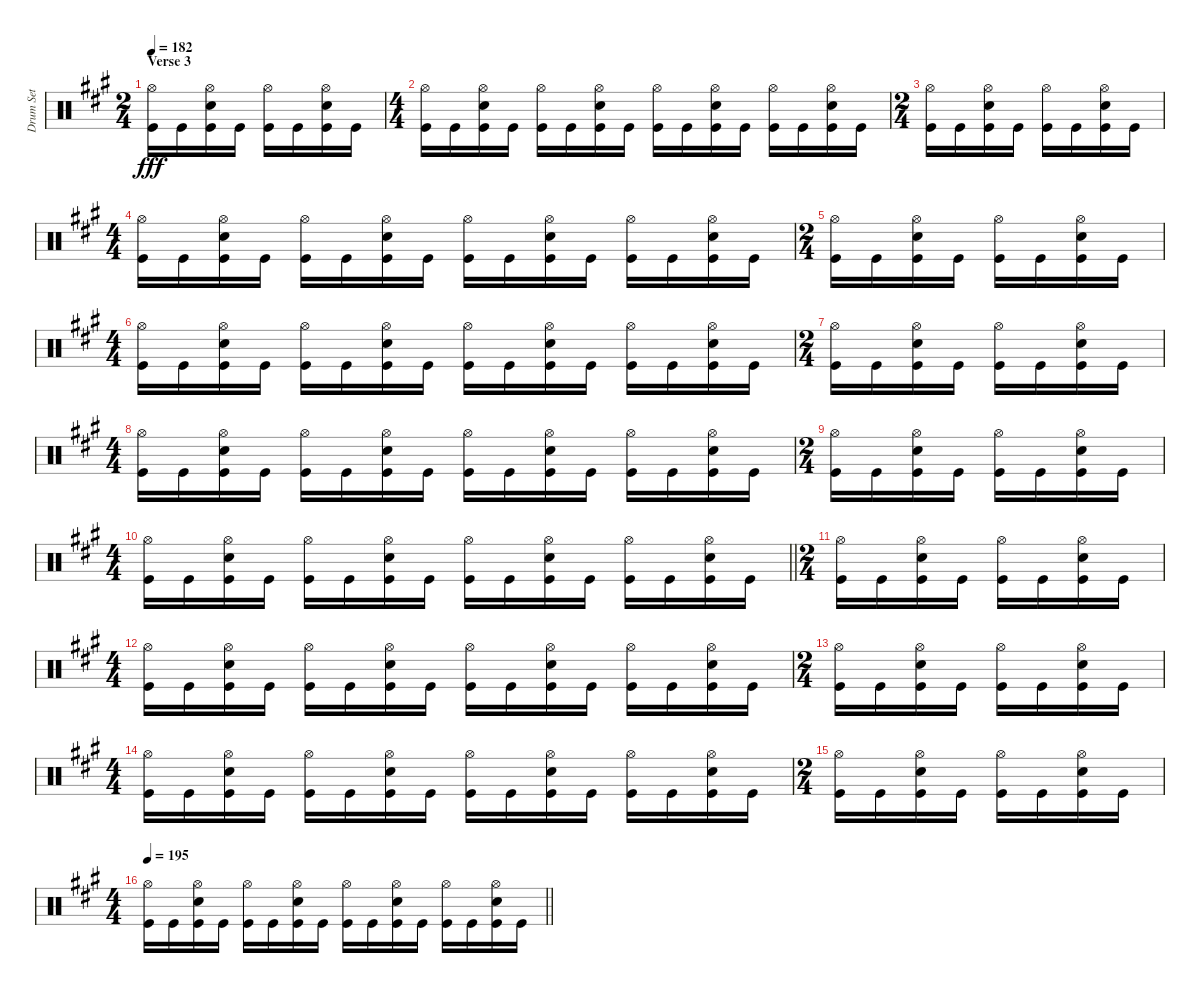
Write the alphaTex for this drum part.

\track ("Drum Set" "Drum Set") {instrument percussion}
\staff {score}
\articulation defaults
\ts (2 4)
\section ("" "Verse 3")
\tempo 182
\clef neutral
\ks a
("Hi-Hat (open)" "Kick (hit)").16{dy fff} "Kick (hit)".16 ("Electric Snare (hit)" "Hi-Hat (open)" "Kick (hit)").16 "Kick (hit)".16 ("Hi-Hat (open)" "Kick (hit)").16 "Kick (hit)".16 ("Electric Snare (hit)" "Hi-Hat (open)" "Kick (hit)").16 "Kick (hit)".16 |
\ts (4 4)
("Hi-Hat (open)" "Kick (hit)").16 "Kick (hit)".16 ("Electric Snare (hit)" "Hi-Hat (open)" "Kick (hit)").16 "Kick (hit)".16 ("Hi-Hat (open)" "Kick (hit)").16 "Kick (hit)".16 ("Electric Snare (hit)" "Hi-Hat (open)" "Kick (hit)").16 "Kick (hit)".16 ("Hi-Hat (open)" "Kick (hit)").16 "Kick (hit)".16 ("Electric Snare (hit)" "Hi-Hat (open)" "Kick (hit)").16 "Kick (hit)".16 ("Hi-Hat (open)" "Kick (hit)").16 "Kick (hit)".16 ("Electric Snare (hit)" "Hi-Hat (open)" "Kick (hit)").16 "Kick (hit)".16 |
\ts (2 4)
("Hi-Hat (open)" "Kick (hit)").16 "Kick (hit)".16 ("Electric Snare (hit)" "Hi-Hat (open)" "Kick (hit)").16 "Kick (hit)".16 ("Hi-Hat (open)" "Kick (hit)").16 "Kick (hit)".16 ("Electric Snare (hit)" "Hi-Hat (open)" "Kick (hit)").16 "Kick (hit)".16 |
\ts (4 4)
("Hi-Hat (open)" "Kick (hit)").16 "Kick (hit)".16 ("Electric Snare (hit)" "Hi-Hat (open)" "Kick (hit)").16 "Kick (hit)".16 ("Hi-Hat (open)" "Kick (hit)").16 "Kick (hit)".16 ("Electric Snare (hit)" "Hi-Hat (open)" "Kick (hit)").16 "Kick (hit)".16 ("Hi-Hat (open)" "Kick (hit)").16 "Kick (hit)".16 ("Electric Snare (hit)" "Hi-Hat (open)" "Kick (hit)").16 "Kick (hit)".16 ("Hi-Hat (open)" "Kick (hit)").16 "Kick (hit)".16 ("Electric Snare (hit)" "Hi-Hat (open)" "Kick (hit)").16 "Kick (hit)".16 |
\ts (2 4)
("Hi-Hat (open)" "Kick (hit)").16 "Kick (hit)".16 ("Electric Snare (hit)" "Hi-Hat (open)" "Kick (hit)").16 "Kick (hit)".16 ("Hi-Hat (open)" "Kick (hit)").16 "Kick (hit)".16 ("Electric Snare (hit)" "Hi-Hat (open)" "Kick (hit)").16 "Kick (hit)".16 |
\ts (4 4)
("Hi-Hat (open)" "Kick (hit)").16 "Kick (hit)".16 ("Electric Snare (hit)" "Hi-Hat (open)" "Kick (hit)").16 "Kick (hit)".16 ("Hi-Hat (open)" "Kick (hit)").16 "Kick (hit)".16 ("Electric Snare (hit)" "Hi-Hat (open)" "Kick (hit)").16 "Kick (hit)".16 ("Hi-Hat (open)" "Kick (hit)").16 "Kick (hit)".16 ("Electric Snare (hit)" "Hi-Hat (open)" "Kick (hit)").16 "Kick (hit)".16 ("Hi-Hat (open)" "Kick (hit)").16 "Kick (hit)".16 ("Electric Snare (hit)" "Hi-Hat (open)" "Kick (hit)").16 "Kick (hit)".16 |
\ts (2 4)
("Hi-Hat (open)" "Kick (hit)").16 "Kick (hit)".16 ("Electric Snare (hit)" "Hi-Hat (open)" "Kick (hit)").16 "Kick (hit)".16 ("Hi-Hat (open)" "Kick (hit)").16 "Kick (hit)".16 ("Electric Snare (hit)" "Hi-Hat (open)" "Kick (hit)").16 "Kick (hit)".16 |
\ts (4 4)
("Hi-Hat (open)" "Kick (hit)").16 "Kick (hit)".16 ("Electric Snare (hit)" "Hi-Hat (open)" "Kick (hit)").16 "Kick (hit)".16 ("Hi-Hat (open)" "Kick (hit)").16 "Kick (hit)".16 ("Electric Snare (hit)" "Hi-Hat (open)" "Kick (hit)").16 "Kick (hit)".16 ("Hi-Hat (open)" "Kick (hit)").16 "Kick (hit)".16 ("Electric Snare (hit)" "Hi-Hat (open)" "Kick (hit)").16 "Kick (hit)".16 ("Hi-Hat (open)" "Kick (hit)").16 "Kick (hit)".16 ("Electric Snare (hit)" "Hi-Hat (open)" "Kick (hit)").16 "Kick (hit)".16 |
\ts (2 4)
("Hi-Hat (open)" "Kick (hit)").16 "Kick (hit)".16 ("Electric Snare (hit)" "Hi-Hat (open)" "Kick (hit)").16 "Kick (hit)".16 ("Hi-Hat (open)" "Kick (hit)").16 "Kick (hit)".16 ("Electric Snare (hit)" "Hi-Hat (open)" "Kick (hit)").16 "Kick (hit)".16 |
\ts (4 4)
\barLineRight lightlight
("Hi-Hat (open)" "Kick (hit)").16 "Kick (hit)".16 ("Electric Snare (hit)" "Hi-Hat (open)" "Kick (hit)").16 "Kick (hit)".16 ("Hi-Hat (open)" "Kick (hit)").16 "Kick (hit)".16 ("Electric Snare (hit)" "Hi-Hat (open)" "Kick (hit)").16 "Kick (hit)".16 ("Hi-Hat (open)" "Kick (hit)").16 "Kick (hit)".16 ("Electric Snare (hit)" "Hi-Hat (open)" "Kick (hit)").16 "Kick (hit)".16 ("Hi-Hat (open)" "Kick (hit)").16 "Kick (hit)".16 ("Electric Snare (hit)" "Hi-Hat (open)" "Kick (hit)").16 "Kick (hit)".16 |
\ts (2 4)
("Hi-Hat (open)" "Kick (hit)").16 "Kick (hit)".16 ("Electric Snare (hit)" "Hi-Hat (open)" "Kick (hit)").16 "Kick (hit)".16 ("Hi-Hat (open)" "Kick (hit)").16 "Kick (hit)".16 ("Electric Snare (hit)" "Hi-Hat (open)" "Kick (hit)").16 "Kick (hit)".16 |
\ts (4 4)
("Hi-Hat (open)" "Kick (hit)").16 "Kick (hit)".16 ("Electric Snare (hit)" "Hi-Hat (open)" "Kick (hit)").16 "Kick (hit)".16 ("Hi-Hat (open)" "Kick (hit)").16 "Kick (hit)".16 ("Electric Snare (hit)" "Hi-Hat (open)" "Kick (hit)").16 "Kick (hit)".16 ("Hi-Hat (open)" "Kick (hit)").16 "Kick (hit)".16 ("Electric Snare (hit)" "Hi-Hat (open)" "Kick (hit)").16 "Kick (hit)".16 ("Hi-Hat (open)" "Kick (hit)").16 "Kick (hit)".16 ("Electric Snare (hit)" "Hi-Hat (open)" "Kick (hit)").16 "Kick (hit)".16 |
\ts (2 4)
("Hi-Hat (open)" "Kick (hit)").16 "Kick (hit)".16 ("Electric Snare (hit)" "Hi-Hat (open)" "Kick (hit)").16 "Kick (hit)".16 ("Hi-Hat (open)" "Kick (hit)").16 "Kick (hit)".16 ("Electric Snare (hit)" "Hi-Hat (open)" "Kick (hit)").16 "Kick (hit)".16 |
\ts (4 4)
("Hi-Hat (open)" "Kick (hit)").16 "Kick (hit)".16 ("Electric Snare (hit)" "Hi-Hat (open)" "Kick (hit)").16 "Kick (hit)".16 ("Hi-Hat (open)" "Kick (hit)").16 "Kick (hit)".16 ("Electric Snare (hit)" "Hi-Hat (open)" "Kick (hit)").16 "Kick (hit)".16 ("Hi-Hat (open)" "Kick (hit)").16 "Kick (hit)".16 ("Electric Snare (hit)" "Hi-Hat (open)" "Kick (hit)").16 "Kick (hit)".16 ("Hi-Hat (open)" "Kick (hit)").16 "Kick (hit)".16 ("Electric Snare (hit)" "Hi-Hat (open)" "Kick (hit)").16 "Kick (hit)".16 |
\ts (2 4)
("Hi-Hat (open)" "Kick (hit)").16 "Kick (hit)".16 ("Electric Snare (hit)" "Hi-Hat (open)" "Kick (hit)").16 "Kick (hit)".16 ("Hi-Hat (open)" "Kick (hit)").16 "Kick (hit)".16 ("Electric Snare (hit)" "Hi-Hat (open)" "Kick (hit)").16 "Kick (hit)".16 |
\ts (4 4)
\tempo 195
\barLineRight lightlight
("Hi-Hat (open)" "Kick (hit)").16 "Kick (hit)".16 ("Electric Snare (hit)" "Hi-Hat (open)" "Kick (hit)").16 "Kick (hit)".16 ("Hi-Hat (open)" "Kick (hit)").16 "Kick (hit)".16 ("Electric Snare (hit)" "Hi-Hat (open)" "Kick (hit)").16 "Kick (hit)".16 ("Hi-Hat (open)" "Kick (hit)").16 "Kick (hit)".16 ("Electric Snare (hit)" "Hi-Hat (open)" "Kick (hit)").16 "Kick (hit)".16 ("Hi-Hat (open)" "Kick (hit)").16 "Kick (hit)".16 ("Electric Snare (hit)" "Hi-Hat (open)" "Kick (hit)").16 "Kick (hit)".16
